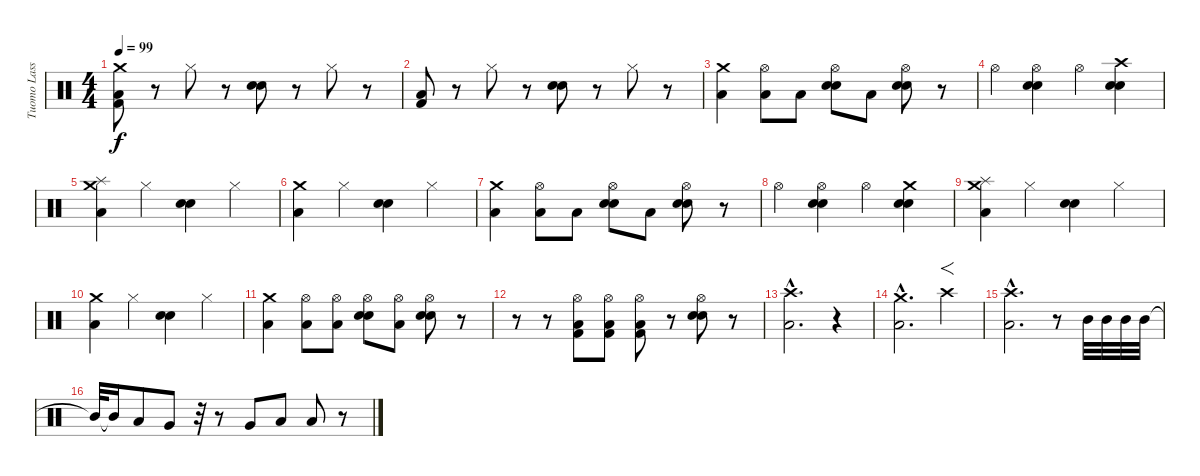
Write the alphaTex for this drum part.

\track ("Tuomo Lassila" "Tuomo Lass") {instrument percussion}
\staff {score}
\articulation defaults
\ts (4 4)
\tempo 99
\clef neutral
\ks c
("Crash medium (hit)" "Kick (hit) 2" "Low Floor Tom (hit)").8{dy f} r.8 "Hi-Hat (closed)".8 r.8 ("Electric Snare (hit)" "Snare (hit) 2").8 r.8 "Hi-Hat (closed)".8 r.8 |
("Kick (hit) 2" "Low Floor Tom (hit)").8 r.8 "Hi-Hat (closed)".8 r.8 ("Electric Snare (hit)" "Snare (hit) 2").8 r.8 "Hi-Hat (closed)".8 r.8 |
("Crash medium (hit)" "Low Floor Tom (hit)").4 ("Low Floor Tom (hit)" "Hi-Hat (open)").8 "Low Floor Tom (hit)".8 ("Electric Snare (hit)" "Snare (hit) 2" "Hi-Hat (open)").8 "Low Floor Tom (hit)".8 ("Electric Snare (hit)" "Snare (hit) 2" "Hi-Hat (open)").8 r.8 |
"Hi-Hat (open)".4 ("Electric Snare (hit)" "Hi-Hat (open)" "Snare (hit) 2").4 "Hi-Hat (open)".4 ("Electric Snare (hit)" "Crash high (hit)" "Snare (hit) 2").4 |
("Splash (hit)" "Low Floor Tom (hit)" "Crash medium (hit)").4 "Hi-Hat (closed)".4 ("Electric Snare (hit)" "Snare (hit) 2").4 "Hi-Hat (closed)".4 |
("Crash medium (hit)" "Low Floor Tom (hit)").4 "Hi-Hat (closed)".4 ("Electric Snare (hit)" "Snare (hit) 2").4 "Hi-Hat (closed)".4 |
("Crash medium (hit)" "Low Floor Tom (hit)").4 ("Low Floor Tom (hit)" "Hi-Hat (open)").8 "Low Floor Tom (hit)".8 ("Electric Snare (hit)" "Snare (hit) 2" "Hi-Hat (open)").8 "Low Floor Tom (hit)".8 ("Electric Snare (hit)" "Snare (hit) 2" "Hi-Hat (open)").8 r.8 |
"Hi-Hat (open)".4 ("Electric Snare (hit)" "Hi-Hat (open)" "Snare (hit) 2").4 "Hi-Hat (open)".4 ("Electric Snare (hit)" "Crash medium (hit)" "Snare (hit) 2").4 |
("Splash (hit)" "Low Floor Tom (hit)" "Crash medium (hit)").4 "Hi-Hat (closed)".4 ("Electric Snare (hit)" "Snare (hit) 2").4 "Hi-Hat (closed)".4 |
("Crash medium (hit)" "Low Floor Tom (hit)").4 "Hi-Hat (closed)".4 ("Electric Snare (hit)" "Snare (hit) 2").4 "Hi-Hat (closed)".4 |
("Crash medium (hit)" "Low Floor Tom (hit)").4 ("Low Floor Tom (hit)" "Hi-Hat (open)").8 ("Low Floor Tom (hit)" "Hi-Hat (open)").8 ("Electric Snare (hit)" "Snare (hit) 2" "Hi-Hat (open)").8 ("Low Floor Tom (hit)" "Hi-Hat (open)").8 ("Electric Snare (hit)" "Snare (hit) 2" "Hi-Hat (open)").8 r.8 |
r.8 r.8 ("Kick (hit) 2" "Low Floor Tom (hit)" "Hi-Hat (open)").8 ("Kick (hit) 2" "Low Floor Tom (hit)" "Hi-Hat (open)").8 ("Kick (hit) 2" "Low Floor Tom (hit)" "Hi-Hat (open)").8 r.8 ("Snare (hit) 2" "Electric Snare (hit)" "Hi-Hat (open)").8 r.8 |
("Low Floor Tom (hit)"{hac} "Crash high (hit)"{hac}).2{d} r.4 |
("Crash medium (hit)"{hac} "Low Floor Tom (hit)"{hac}).2{d} "Crash high (hit)".4{f} |
("Crash high (hit)"{hac} "Low Floor Tom (hit)"{hac}).2{d} r.8 "Mid Tom (hit)".32{balance 5} "Mid Tom (hit)".32 "Mid Tom (hit)".32{balance 6} "Mid Tom (hit)".32 |
"Mid Tom (hit)"{t}.32 "Mid Tom (hit)"{t}.16 "Low Tom (hit)".8{balance 6} "Very Low Tom (hit)".8{balance 9} r.32 r.8 "Very Low Tom (hit)".8{balance 13} "Low Floor Tom (hit)".8{balance 14} "Low Floor Tom (hit)".8{balance 14} r.8
